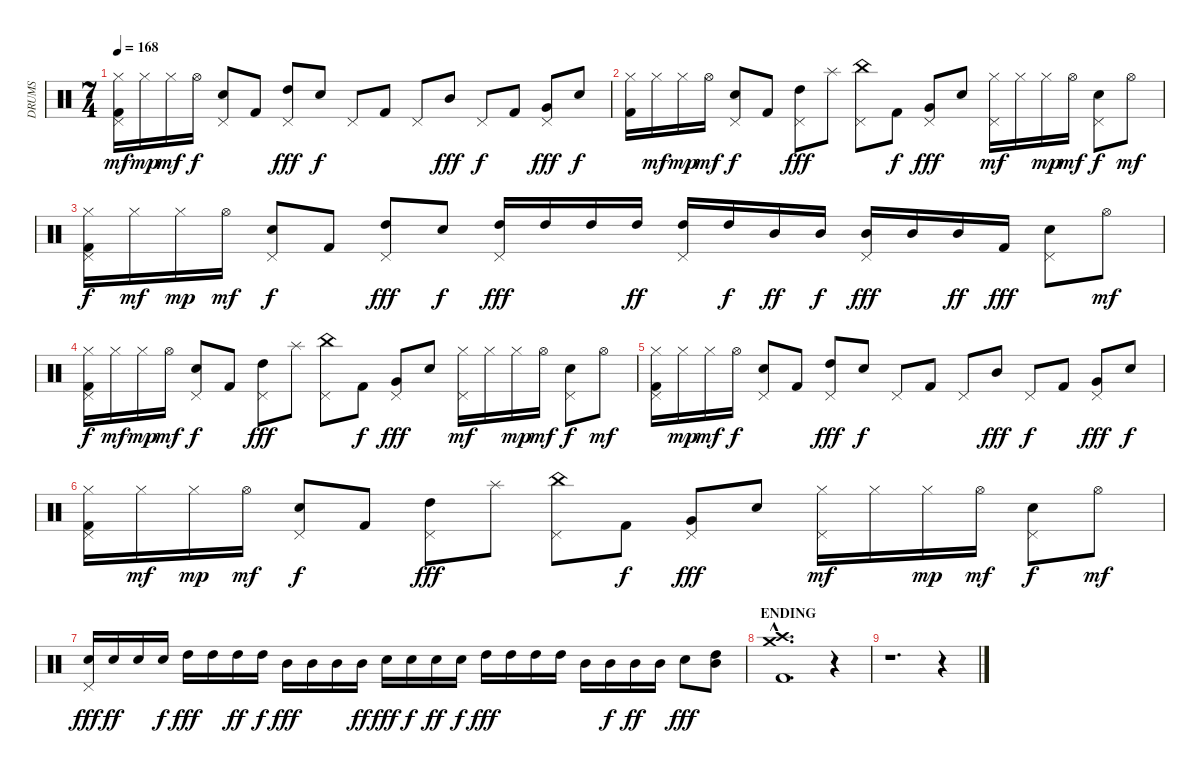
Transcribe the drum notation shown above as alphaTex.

\track ("DRUMS" "DRUMS") {instrument percussion}
\staff {score}
\articulation defaults
\ts (7 4)
\tempo 168
\clef neutral
\ks c
("Hi-Hat (closed)" "Pedal Hi-Hat (hit)" "Kick (hit) 2").16{dy mf} "Hi-Hat (closed)".16{dy mp} "Hi-Hat (closed)".16{dy mf} "Hi-Hat (open)".16{dy f} ("Electric Snare (hit)" "Pedal Hi-Hat (hit)").8 "Kick (hit) 2".8 ("High Tom (hit)" "Pedal Hi-Hat (hit)").8{dy fff} "Electric Snare (hit)".8{dy f} "Pedal Hi-Hat (hit)".8 "Kick (hit) 2".8 "Pedal Hi-Hat (hit)".8 "Mid Tom (hit)".8{dy fff} "Pedal Hi-Hat (hit)".8{dy f} "Kick (hit) 2".8 ("Very Low Tom (hit)" "Pedal Hi-Hat (hit)").8{dy fff} "Electric Snare (hit)".8{dy f} |
("Hi-Hat (closed)" "Kick (hit) 2").16 "Hi-Hat (closed)".16{dy mf} "Hi-Hat (closed)".16{dy mp} "Hi-Hat (open)".16{dy mf} ("Electric Snare (hit)" "Pedal Hi-Hat (hit)").8{dy f} "Kick (hit) 2".8 ("High Tom (hit)" "Pedal Hi-Hat (hit)").8{dy fff} "Splash (hit)".8 ("China (hit)" "Pedal Hi-Hat (hit)").8 "Kick (hit) 2".8{dy f} ("Very Low Tom (hit)" "Pedal Hi-Hat (hit)").8{dy fff} "Electric Snare (hit)".8 ("Hi-Hat (closed)" "Pedal Hi-Hat (hit)").16{dy mf} "Hi-Hat (closed)".16 "Hi-Hat (closed)".16{dy mp} "Hi-Hat (open)".16{dy mf} ("Electric Snare (hit)" "Pedal Hi-Hat (hit)").8{dy f} "Hi-Hat (open)".8{dy mf} |
("Hi-Hat (closed)" "Pedal Hi-Hat (hit)" "Kick (hit) 2").16{dy f} "Hi-Hat (closed)".16{dy mf} "Hi-Hat (closed)".16{dy mp} "Hi-Hat (open)".16{dy mf} ("Electric Snare (hit)" "Pedal Hi-Hat (hit)").8{dy f} "Kick (hit) 2".8 ("High Tom (hit)" "Pedal Hi-Hat (hit)").8{dy fff} "Electric Snare (hit)".8{dy f} ("High Tom (hit)" "Pedal Hi-Hat (hit)").16{dy fff} "High Tom (hit)".16 "High Tom (hit)".16 "High Tom (hit)".16{dy ff} ("High Tom (hit)" "Pedal Hi-Hat (hit)").16 "High Tom (hit)".16{dy f} "Mid Tom (hit)".16{dy ff} "Mid Tom (hit)".16{dy f} ("Mid Tom (hit)" "Pedal Hi-Hat (hit)").16{dy fff} "Mid Tom (hit)".16 "Mid Tom (hit)".16{dy ff} "Kick (hit) 2".16{dy fff} ("Electric Snare (hit)" "Pedal Hi-Hat (hit)").8 "Hi-Hat (open)".8{dy mf} |
("Hi-Hat (closed)" "Pedal Hi-Hat (hit)" "Kick (hit) 2").16{dy f} "Hi-Hat (closed)".16{dy mf} "Hi-Hat (closed)".16{dy mp} "Hi-Hat (open)".16{dy mf} ("Electric Snare (hit)" "Pedal Hi-Hat (hit)").8{dy f} "Kick (hit) 2".8 ("High Tom (hit)" "Pedal Hi-Hat (hit)").8{dy fff} "Splash (hit)".8 ("China (hit)" "Pedal Hi-Hat (hit)").8 "Kick (hit) 2".8{dy f} ("Very Low Tom (hit)" "Pedal Hi-Hat (hit)").8{dy fff} "Electric Snare (hit)".8 ("Hi-Hat (closed)" "Pedal Hi-Hat (hit)").16{dy mf} "Hi-Hat (closed)".16 "Hi-Hat (closed)".16{dy mp} "Hi-Hat (open)".16{dy mf} ("Electric Snare (hit)" "Pedal Hi-Hat (hit)").8{dy f} "Hi-Hat (open)".8{dy mf} |
("Hi-Hat (closed)" "Pedal Hi-Hat (hit)" "Kick (hit) 2").16 "Hi-Hat (closed)".16{dy mp} "Hi-Hat (closed)".16{dy mf} "Hi-Hat (open)".16{dy f} ("Electric Snare (hit)" "Pedal Hi-Hat (hit)").8 "Kick (hit) 2".8 ("High Tom (hit)" "Pedal Hi-Hat (hit)").8{dy fff} "Electric Snare (hit)".8{dy f} "Pedal Hi-Hat (hit)".8 "Kick (hit) 2".8 "Pedal Hi-Hat (hit)".8 "Mid Tom (hit)".8{dy fff} "Pedal Hi-Hat (hit)".8{dy f} "Kick (hit) 2".8 ("Very Low Tom (hit)" "Pedal Hi-Hat (hit)").8{dy fff} "Electric Snare (hit)".8{dy f} |
("Hi-Hat (closed)" "Pedal Hi-Hat (hit)" "Kick (hit) 2").16 "Hi-Hat (closed)".16{dy mf} "Hi-Hat (closed)".16{dy mp} "Hi-Hat (open)".16{dy mf} ("Electric Snare (hit)" "Pedal Hi-Hat (hit)").8{dy f} "Kick (hit) 2".8 ("High Tom (hit)" "Pedal Hi-Hat (hit)").8{dy fff} "Splash (hit)".8 ("China (hit)" "Pedal Hi-Hat (hit)").8 "Kick (hit) 2".8{dy f} ("Very Low Tom (hit)" "Pedal Hi-Hat (hit)").8{dy fff} "Electric Snare (hit)".8 ("Hi-Hat (closed)" "Pedal Hi-Hat (hit)").16{dy mf} "Hi-Hat (closed)".16 "Hi-Hat (closed)".16{dy mp} "Hi-Hat (open)".16{dy mf} ("Electric Snare (hit)" "Pedal Hi-Hat (hit)").8{dy f} "Hi-Hat (open)".8{dy mf} |
("Electric Snare (hit)" "Pedal Hi-Hat (hit)").16{dy fff} "Electric Snare (hit)".16{dy ff} "Electric Snare (hit)".16 "Electric Snare (hit)".16{dy f} "High Tom (hit)".16{dy fff} "High Tom (hit)".16 "High Tom (hit)".16{dy ff} "High Tom (hit)".16{dy f} "Mid Tom (hit)".16{dy fff} "Mid Tom (hit)".16 "Mid Tom (hit)".16 "Mid Tom (hit)".16{dy ff} "Electric Snare (hit)".16{dy fff} "Electric Snare (hit)".16{dy f} "Electric Snare (hit)".16{dy ff} "Electric Snare (hit)".16{dy f} "High Tom (hit)".16{dy fff} "High Tom (hit)".16 "High Tom (hit)".16 "High Tom (hit)".16 "Mid Tom (hit)".16 "Mid Tom (hit)".16{dy f} "Mid Tom (hit)".16{dy ff} "Mid Tom (hit)".16 "Electric Snare (hit)".8{dy fff} ("High Tom (hit)" "Mid Tom (hit)").8 |
\section ("" "ENDING")
("Crash medium (hit)"{hac} "Crash high (hit)"{hac} "Kick (hit) 2"{hac}).1{d} r.4 |
r.1{d} r.4
